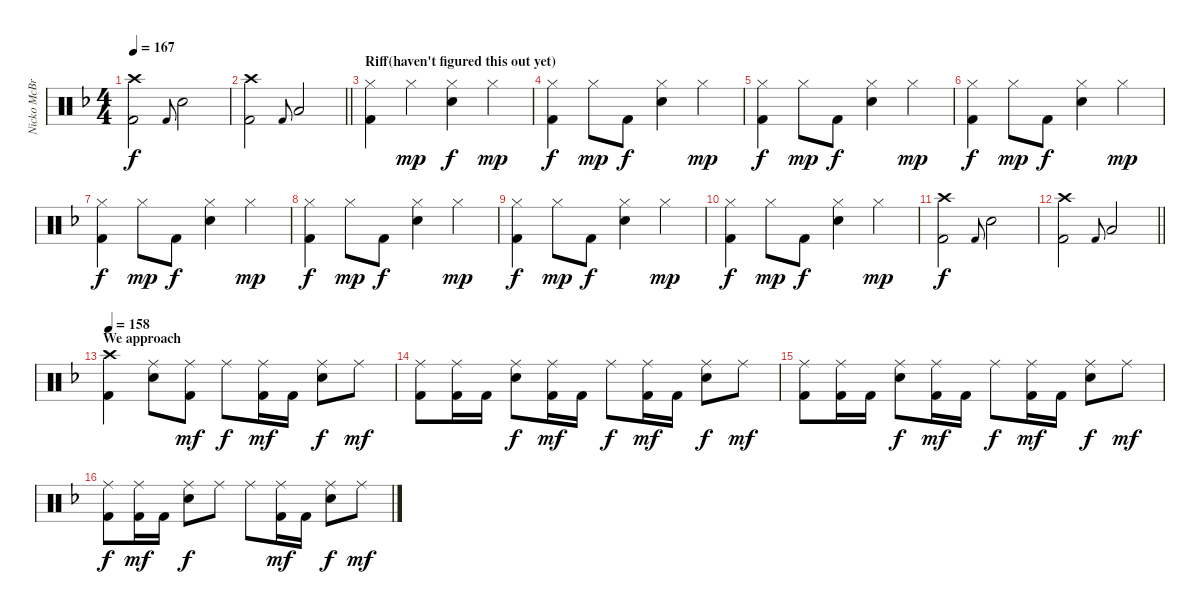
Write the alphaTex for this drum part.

\track ("Nicko McBrain" "Nicko McBr") {instrument percussion}
\staff {score}
\articulation defaults
\ts (4 4)
\tempo 167
\clef neutral
\ks f
("Crash high (hit)" "Kick (hit) 2").2{dy f} "Kick (hit) 2".8{gr onbeat} "Electric Snare (hit)".2 |
\barLineRight lightlight
("Crash high (hit)" "Kick (hit) 2").2 "Kick (hit) 2".8{gr onbeat} "Low Tom (hit)".2 |
\section ("" "Riff(haven't figured this out yet)")
("Hi-Hat (closed)" "Kick (hit) 2").4 "Hi-Hat (closed)".4{dy mp} ("Hi-Hat (closed)" "Electric Snare (hit)").4{dy f} "Hi-Hat (closed)".4{dy mp} |
("Hi-Hat (closed)" "Kick (hit) 2").4{dy f} "Hi-Hat (closed)".8{dy mp} "Kick (hit) 2".8{dy f} ("Hi-Hat (closed)" "Electric Snare (hit)").4 "Hi-Hat (closed)".4{dy mp} |
("Hi-Hat (closed)" "Kick (hit) 2").4{dy f} "Hi-Hat (closed)".8{dy mp} "Kick (hit) 2".8{dy f} ("Hi-Hat (closed)" "Electric Snare (hit)").4 "Hi-Hat (closed)".4{dy mp} |
("Hi-Hat (closed)" "Kick (hit) 2").4{dy f} "Hi-Hat (closed)".8{dy mp} "Kick (hit) 2".8{dy f} ("Hi-Hat (closed)" "Electric Snare (hit)").4 "Hi-Hat (closed)".4{dy mp} |
("Hi-Hat (closed)" "Kick (hit) 2").4{dy f} "Hi-Hat (closed)".8{dy mp} "Kick (hit) 2".8{dy f} ("Hi-Hat (closed)" "Electric Snare (hit)").4 "Hi-Hat (closed)".4{dy mp} |
("Hi-Hat (closed)" "Kick (hit) 2").4{dy f} "Hi-Hat (closed)".8{dy mp} "Kick (hit) 2".8{dy f} ("Hi-Hat (closed)" "Electric Snare (hit)").4 "Hi-Hat (closed)".4{dy mp} |
("Hi-Hat (closed)" "Kick (hit) 2").4{dy f} "Hi-Hat (closed)".8{dy mp} "Kick (hit) 2".8{dy f} ("Hi-Hat (closed)" "Electric Snare (hit)").4 "Hi-Hat (closed)".4{dy mp} |
("Hi-Hat (closed)" "Kick (hit) 2").4{dy f} "Hi-Hat (closed)".8{dy mp} "Kick (hit) 2".8{dy f} ("Hi-Hat (closed)" "Electric Snare (hit)").4 "Hi-Hat (closed)".4{dy mp} |
("Crash high (hit)" "Kick (hit) 2").2{dy f} "Kick (hit) 2".8{gr onbeat} "Electric Snare (hit)".2 |
\barLineRight lightlight
("Crash high (hit)" "Kick (hit) 2").2 "Kick (hit) 2".8{gr onbeat} "Low Tom (hit)".2 |
\section ("" "We approach")
\tempo 158
("Crash high (hit)" "Kick (hit) 2").4 ("Ride (middle)" "Electric Snare (hit)").8 ("Ride (middle)" "Kick (hit) 2").8{dy mf} "Ride (middle)".8{dy f} ("Ride (middle)" "Kick (hit) 2").16{dy mf} "Kick (hit) 2".16 ("Ride (middle)" "Electric Snare (hit)").8{dy f} "Ride (middle)".8{dy mf} |
("Ride (middle)" "Kick (hit) 2").8 ("Ride (middle)" "Kick (hit) 2").16 "Kick (hit) 2".16 ("Ride (middle)" "Electric Snare (hit)").8{dy f} ("Ride (middle)" "Kick (hit) 2").16{dy mf} "Kick (hit) 2".16 "Ride (middle)".8{dy f} ("Ride (middle)" "Kick (hit) 2").16{dy mf} "Kick (hit) 2".16 ("Ride (middle)" "Electric Snare (hit)").8{dy f} "Ride (middle)".8{dy mf} |
("Ride (middle)" "Kick (hit) 2").8 ("Ride (middle)" "Kick (hit) 2").16 "Kick (hit) 2".16 ("Ride (middle)" "Electric Snare (hit)").8{dy f} ("Ride (middle)" "Kick (hit) 2").16{dy mf} "Kick (hit) 2".16 "Ride (middle)".8{dy f} ("Ride (middle)" "Kick (hit) 2").16{dy mf} "Kick (hit) 2".16 ("Ride (middle)" "Electric Snare (hit)").8{dy f} "Ride (middle)".8{dy mf} |
("Ride (middle)" "Kick (hit) 2").8{dy f} ("Ride (middle)" "Kick (hit) 2").16{dy mf} "Kick (hit) 2".16 ("Ride (middle)" "Electric Snare (hit)").8{dy f} "Ride (middle)".8 "Ride (middle)".8 ("Ride (middle)" "Kick (hit) 2").16{dy mf} "Kick (hit) 2".16 ("Ride (middle)" "Electric Snare (hit)").8{dy f} "Ride (middle)".8{dy mf}
